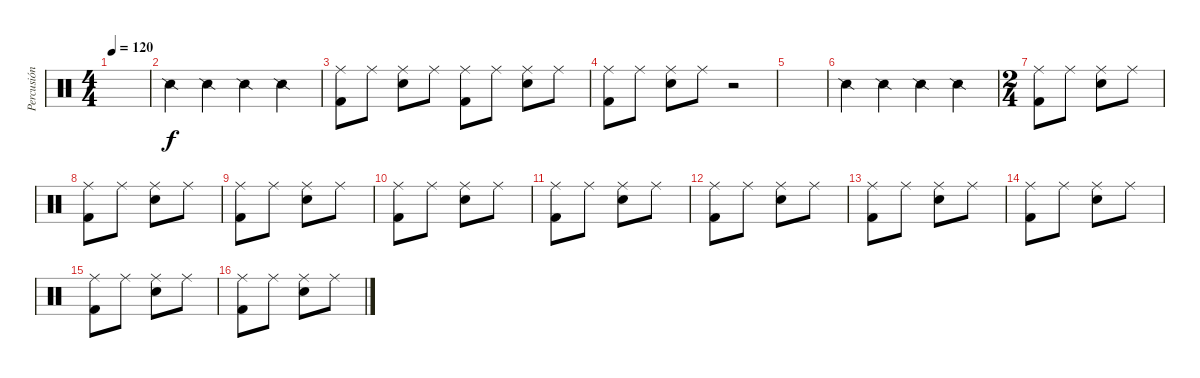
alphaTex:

\track ("Percusión" "Percusión") {instrument percussion}
\staff {score}
\articulation defaults
\ts (4 4)
\tempo 120
\clef neutral
\ks c
|
"Snare (side stick) 2".4 "Snare (side stick) 2".4 "Snare (side stick) 2".4 "Snare (side stick) 2".4 |
("Kick (hit) 2" "Ride (middle)").8 "Ride (middle)".8 ("Snare (hit) 2" "Ride (middle)").8 "Ride (middle)".8 ("Kick (hit) 2" "Ride (middle)").8 "Ride (middle)".8 ("Snare (hit) 2" "Ride (middle)").8 "Ride (middle)".8 |
("Kick (hit) 2" "Ride (middle)").8 "Ride (middle)".8 ("Snare (hit) 2" "Ride (middle)").8 "Ride (middle)".8 r.2 |
|
"Snare (side stick) 2".4 "Snare (side stick) 2".4 "Snare (side stick) 2".4 "Snare (side stick) 2".4 |
\ts (2 4)
("Kick (hit) 2" "Ride (middle)").8 "Ride (middle)".8 ("Snare (hit) 2" "Ride (middle)").8 "Ride (middle)".8 |
("Kick (hit) 2" "Ride (middle)").8 "Ride (middle)".8 ("Snare (hit) 2" "Ride (middle)").8 "Ride (middle)".8 |
("Kick (hit) 2" "Ride (middle)").8 "Ride (middle)".8 ("Snare (hit) 2" "Ride (middle)").8 "Ride (middle)".8 |
("Kick (hit) 2" "Ride (middle)").8 "Ride (middle)".8 ("Snare (hit) 2" "Ride (middle)").8 "Ride (middle)".8 |
("Kick (hit) 2" "Ride (middle)").8 "Ride (middle)".8 ("Snare (hit) 2" "Ride (middle)").8 "Ride (middle)".8 |
("Kick (hit) 2" "Ride (middle)").8 "Ride (middle)".8 ("Snare (hit) 2" "Ride (middle)").8 "Ride (middle)".8 |
("Kick (hit) 2" "Ride (middle)").8 "Ride (middle)".8 ("Snare (hit) 2" "Ride (middle)").8 "Ride (middle)".8 |
("Kick (hit) 2" "Ride (middle)").8 "Ride (middle)".8 ("Snare (hit) 2" "Ride (middle)").8 "Ride (middle)".8 |
("Kick (hit) 2" "Ride (middle)").8 "Ride (middle)".8 ("Snare (hit) 2" "Ride (middle)").8 "Ride (middle)".8 |
("Kick (hit) 2" "Ride (middle)").8 "Ride (middle)".8 ("Snare (hit) 2" "Ride (middle)").8 "Ride (middle)".8
